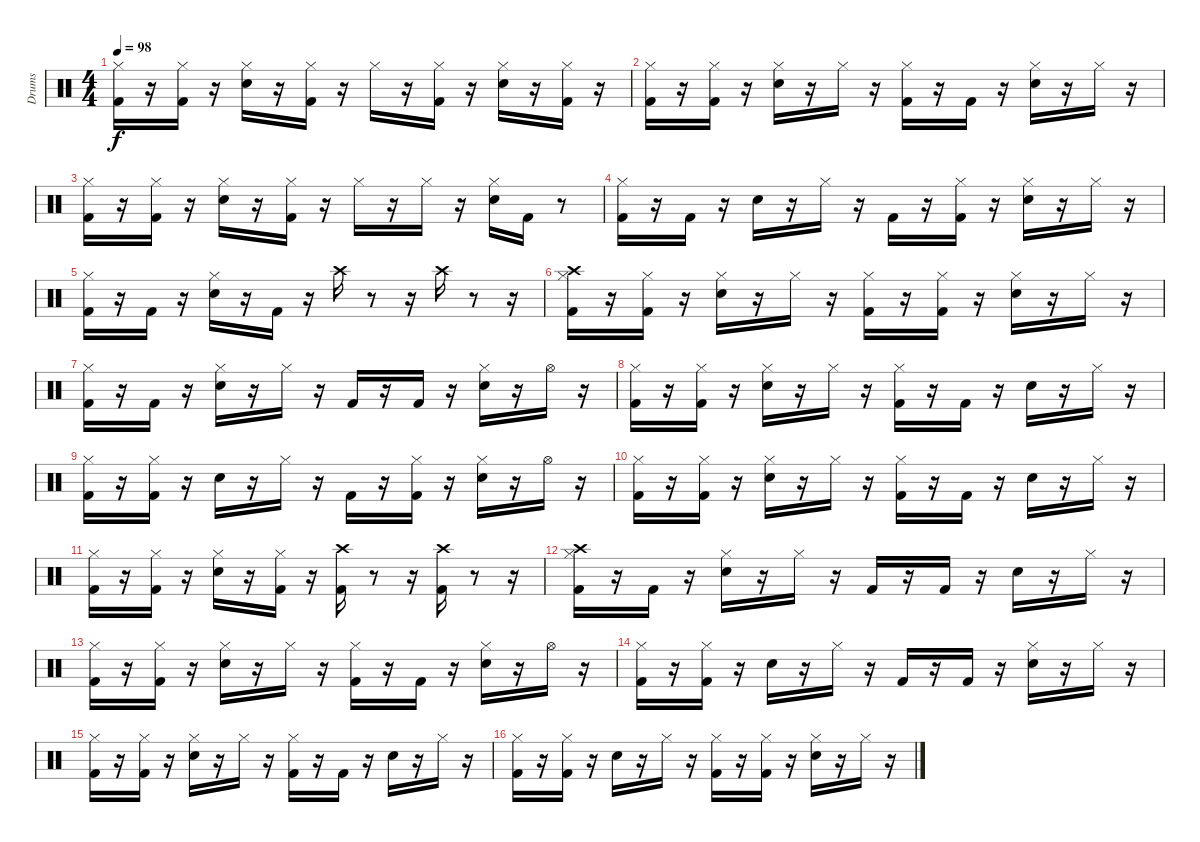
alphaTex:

\track ("Drums" "Drums") {instrument percussion}
\staff {score}
\articulation defaults
\ts (4 4)
\tempo 98
\clef neutral
\ks c
("Kick (hit) 2" "Hi-Hat (closed)").16{dy f} r.16 ("Kick (hit) 2" "Hi-Hat (closed)").16 r.16 ("Snare (hit) 2" "Hi-Hat (closed)").16 r.16 ("Kick (hit) 2" "Hi-Hat (closed)").16 r.16 "Hi-Hat (closed)".16 r.16 ("Kick (hit) 2" "Hi-Hat (closed)").16 r.16 ("Snare (hit) 2" "Hi-Hat (closed)").16 r.16 ("Kick (hit) 2" "Hi-Hat (closed)").16 r.16 |
("Kick (hit) 2" "Hi-Hat (closed)").16 r.16 ("Kick (hit) 2" "Hi-Hat (closed)").16 r.16 ("Snare (hit) 2" "Hi-Hat (closed)").16 r.16 "Hi-Hat (closed)".16 r.16 ("Kick (hit) 2" "Hi-Hat (closed)").16 r.16 "Kick (hit) 2".16 r.16 ("Snare (hit) 2" "Hi-Hat (closed)").16 r.16 "Hi-Hat (closed)".16 r.16 |
("Kick (hit) 2" "Hi-Hat (closed)").16 r.16 ("Kick (hit) 2" "Hi-Hat (closed)").16 r.16 ("Snare (hit) 2" "Hi-Hat (closed)").16 r.16 ("Kick (hit) 2" "Hi-Hat (closed)").16 r.16 "Hi-Hat (closed)".16 r.16 "Hi-Hat (closed)".16 r.16 ("Snare (hit) 2" "Hi-Hat (closed)").16 "Kick (hit) 2".16 r.8 |
("Kick (hit) 2" "Hi-Hat (closed)").16 r.16 "Kick (hit) 2".16 r.16 "Snare (hit) 2".16 r.16 "Hi-Hat (closed)".16 r.16 "Kick (hit) 2".16 r.16 ("Kick (hit) 2" "Hi-Hat (closed)").16 r.16 ("Snare (hit) 2" "Hi-Hat (closed)").16 r.16 "Hi-Hat (closed)".16 r.16 |
("Kick (hit) 2" "Hi-Hat (closed)").16 r.16 "Kick (hit) 2".16 r.16 ("Snare (hit) 2" "Hi-Hat (closed)").16 r.16 "Kick (hit) 2".16 r.16 "Crash high (hit)".16 r.8 r.16 "Crash high (hit)".16 r.8 r.16 |
("Kick (hit) 2" "Hi-Hat (closed)" "Crash high (hit)").16 r.16 ("Kick (hit) 2" "Hi-Hat (closed)").16 r.16 ("Snare (hit) 2" "Hi-Hat (closed)").16 r.16 "Hi-Hat (closed)".16 r.16 ("Kick (hit) 2" "Hi-Hat (closed)").16 r.16 ("Kick (hit) 2" "Hi-Hat (closed)").16 r.16 ("Snare (hit) 2" "Hi-Hat (closed)").16 r.16 "Hi-Hat (closed)".16 r.16 |
("Kick (hit) 2" "Hi-Hat (closed)").16 r.16 "Kick (hit) 2".16 r.16 ("Snare (hit) 2" "Hi-Hat (closed)").16 r.16 "Hi-Hat (closed)".16 r.16 "Kick (hit) 2".16 r.16 "Kick (hit) 2".16 r.16 ("Snare (hit) 2" "Hi-Hat (closed)").16 r.16 "Hi-Hat (open)".16 r.16 |
("Kick (hit) 2" "Hi-Hat (closed)").16 r.16 ("Kick (hit) 2" "Hi-Hat (closed)").16 r.16 ("Snare (hit) 2" "Hi-Hat (closed)").16 r.16 "Hi-Hat (closed)".16 r.16 ("Kick (hit) 2" "Hi-Hat (closed)").16 r.16 "Kick (hit) 2".16 r.16 "Snare (hit) 2".16 r.16 "Hi-Hat (closed)".16 r.16 |
("Kick (hit) 2" "Hi-Hat (closed)").16 r.16 ("Kick (hit) 2" "Hi-Hat (closed)").16 r.16 "Snare (hit) 2".16 r.16 "Hi-Hat (closed)".16 r.16 "Kick (hit) 2".16 r.16 ("Kick (hit) 2" "Hi-Hat (closed)").16 r.16 ("Snare (hit) 2" "Hi-Hat (closed)").16 r.16 "Hi-Hat (open)".16 r.16 |
("Kick (hit) 2" "Hi-Hat (closed)").16 r.16 ("Kick (hit) 2" "Hi-Hat (closed)").16 r.16 ("Snare (hit) 2" "Hi-Hat (closed)").16 r.16 "Hi-Hat (closed)".16 r.16 ("Kick (hit) 2" "Hi-Hat (closed)").16 r.16 "Kick (hit) 2".16 r.16 "Snare (hit) 2".16 r.16 "Hi-Hat (closed)".16 r.16 |
("Kick (hit) 2" "Hi-Hat (closed)").16 r.16 ("Kick (hit) 2" "Hi-Hat (closed)").16 r.16 ("Snare (hit) 2" "Hi-Hat (closed)").16 r.16 ("Kick (hit) 2" "Hi-Hat (closed)").16 r.16 ("Kick (hit) 2" "Crash high (hit)").16 r.8 r.16 ("Kick (hit) 2" "Crash high (hit)").16 r.8 r.16 |
("Kick (hit) 2" "Hi-Hat (closed)" "Crash high (hit)").16 r.16 "Kick (hit) 2".16 r.16 ("Snare (hit) 2" "Hi-Hat (closed)").16 r.16 "Hi-Hat (closed)".16 r.16 "Kick (hit) 2".16 r.16 "Kick (hit) 2".16 r.16 "Snare (hit) 2".16 r.16 "Hi-Hat (closed)".16 r.16 |
("Kick (hit) 2" "Hi-Hat (closed)").16 r.16 ("Kick (hit) 2" "Hi-Hat (closed)").16 r.16 ("Snare (hit) 2" "Hi-Hat (closed)").16 r.16 "Hi-Hat (closed)".16 r.16 ("Kick (hit) 2" "Hi-Hat (closed)").16 r.16 "Kick (hit) 2".16 r.16 ("Snare (hit) 2" "Hi-Hat (closed)").16 r.16 "Hi-Hat (open)".16 r.16 |
("Kick (hit) 2" "Hi-Hat (closed)").16 r.16 ("Kick (hit) 2" "Hi-Hat (closed)").16 r.16 "Snare (hit) 2".16 r.16 "Hi-Hat (closed)".16 r.16 "Kick (hit) 2".16 r.16 "Kick (hit) 2".16 r.16 ("Snare (hit) 2" "Hi-Hat (closed)").16 r.16 "Hi-Hat (closed)".16 r.16 |
("Kick (hit) 2" "Hi-Hat (closed)").16 r.16 ("Kick (hit) 2" "Hi-Hat (closed)").16 r.16 ("Snare (hit) 2" "Hi-Hat (closed)").16 r.16 "Hi-Hat (closed)".16 r.16 ("Kick (hit) 2" "Hi-Hat (closed)").16 r.16 "Kick (hit) 2".16 r.16 "Snare (hit) 2".16 r.16 "Hi-Hat (closed)".16 r.16 |
("Kick (hit) 2" "Hi-Hat (closed)").16 r.16 ("Kick (hit) 2" "Hi-Hat (closed)").16 r.16 "Snare (hit) 2".16 r.16 "Hi-Hat (closed)".16 r.16 ("Kick (hit) 2" "Hi-Hat (closed)").16 r.16 ("Kick (hit) 2" "Hi-Hat (closed)").16 r.16 ("Snare (hit) 2" "Hi-Hat (closed)").16 r.16 "Hi-Hat (closed)".16 r.16
